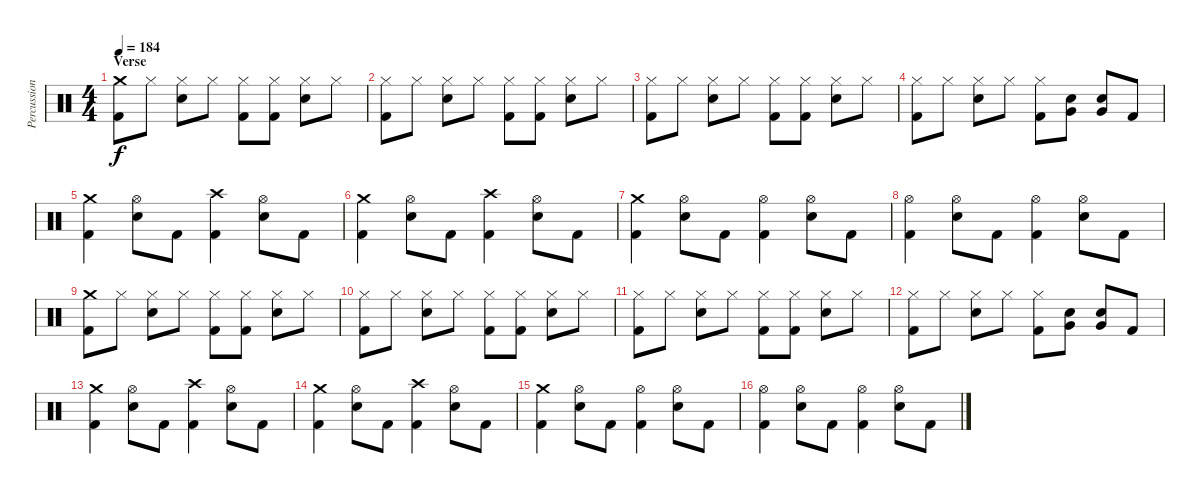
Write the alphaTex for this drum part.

\track ("Percussions" "Percussion") {instrument percussion}
\staff {score}
\articulation defaults
\ts (4 4)
\section ("" "Verse")
\tempo 184
\clef neutral
\ks c
("Crash medium (hit)" "Kick (hit) 2").8{dy f} "Hi-Hat (closed)".8 ("Hi-Hat (closed)" "Electric Snare (hit)").8 "Hi-Hat (closed)".8 ("Hi-Hat (closed)" "Kick (hit) 2").8 ("Hi-Hat (closed)" "Kick (hit) 2").8 ("Hi-Hat (closed)" "Electric Snare (hit)").8 "Hi-Hat (closed)".8 |
("Hi-Hat (closed)" "Kick (hit) 2").8 "Hi-Hat (closed)".8 ("Hi-Hat (closed)" "Electric Snare (hit)").8 "Hi-Hat (closed)".8 ("Hi-Hat (closed)" "Kick (hit) 2").8 ("Hi-Hat (closed)" "Kick (hit) 2").8 ("Hi-Hat (closed)" "Electric Snare (hit)").8 "Hi-Hat (closed)".8 |
("Hi-Hat (closed)" "Kick (hit) 2").8 "Hi-Hat (closed)".8 ("Hi-Hat (closed)" "Electric Snare (hit)").8 "Hi-Hat (closed)".8 ("Hi-Hat (closed)" "Kick (hit) 2").8 ("Hi-Hat (closed)" "Kick (hit) 2").8 ("Hi-Hat (closed)" "Electric Snare (hit)").8 "Hi-Hat (closed)".8 |
("Hi-Hat (closed)" "Kick (hit) 2").8 "Hi-Hat (closed)".8 ("Hi-Hat (closed)" "Electric Snare (hit)").8 "Hi-Hat (closed)".8 ("Hi-Hat (closed)" "Kick (hit) 2").8 ("Very Low Tom (hit)" "Electric Snare (hit)").8 ("Very Low Tom (hit)" "Electric Snare (hit)").8 "Kick (hit) 2".8 |
("Crash medium (hit)" "Kick (hit) 2").4 ("Hi-Hat (open)" "Electric Snare (hit)").8 "Kick (hit) 2".8 ("Crash high (hit)" "Kick (hit) 2").4 ("Hi-Hat (open)" "Electric Snare (hit)").8 "Kick (hit) 2".8 |
("Crash medium (hit)" "Kick (hit) 2").4 ("Hi-Hat (open)" "Electric Snare (hit)").8 "Kick (hit) 2".8 ("Crash high (hit)" "Kick (hit) 2").4 ("Hi-Hat (open)" "Electric Snare (hit)").8 "Kick (hit) 2".8 |
("Crash medium (hit)" "Kick (hit) 2").4 ("Hi-Hat (open)" "Electric Snare (hit)").8 "Kick (hit) 2".8 ("Hi-Hat (open)" "Kick (hit) 2").4 ("Hi-Hat (open)" "Electric Snare (hit)").8 "Kick (hit) 2".8 |
("Hi-Hat (open)" "Kick (hit) 2").4 ("Hi-Hat (open)" "Electric Snare (hit)").8 "Kick (hit) 2".8 ("Hi-Hat (open)" "Kick (hit) 2").4 ("Hi-Hat (open)" "Electric Snare (hit)").8 "Kick (hit) 2".8 |
("Crash medium (hit)" "Kick (hit) 2").8 "Hi-Hat (closed)".8 ("Hi-Hat (closed)" "Electric Snare (hit)").8 "Hi-Hat (closed)".8 ("Hi-Hat (closed)" "Kick (hit) 2").8 ("Hi-Hat (closed)" "Kick (hit) 2").8 ("Hi-Hat (closed)" "Electric Snare (hit)").8 "Hi-Hat (closed)".8 |
("Hi-Hat (closed)" "Kick (hit) 2").8 "Hi-Hat (closed)".8 ("Hi-Hat (closed)" "Electric Snare (hit)").8 "Hi-Hat (closed)".8 ("Hi-Hat (closed)" "Kick (hit) 2").8 ("Hi-Hat (closed)" "Kick (hit) 2").8 ("Hi-Hat (closed)" "Electric Snare (hit)").8 "Hi-Hat (closed)".8 |
("Hi-Hat (closed)" "Kick (hit) 2").8 "Hi-Hat (closed)".8 ("Hi-Hat (closed)" "Electric Snare (hit)").8 "Hi-Hat (closed)".8 ("Hi-Hat (closed)" "Kick (hit) 2").8 ("Hi-Hat (closed)" "Kick (hit) 2").8 ("Hi-Hat (closed)" "Electric Snare (hit)").8 "Hi-Hat (closed)".8 |
("Hi-Hat (closed)" "Kick (hit) 2").8 "Hi-Hat (closed)".8 ("Hi-Hat (closed)" "Electric Snare (hit)").8 "Hi-Hat (closed)".8 ("Hi-Hat (closed)" "Kick (hit) 2").8 ("Very Low Tom (hit)" "Electric Snare (hit)").8 ("Very Low Tom (hit)" "Electric Snare (hit)").8 "Kick (hit) 2".8 |
("Crash medium (hit)" "Kick (hit) 2").4 ("Hi-Hat (open)" "Electric Snare (hit)").8 "Kick (hit) 2".8 ("Crash high (hit)" "Kick (hit) 2").4 ("Hi-Hat (open)" "Electric Snare (hit)").8 "Kick (hit) 2".8 |
("Crash medium (hit)" "Kick (hit) 2").4 ("Hi-Hat (open)" "Electric Snare (hit)").8 "Kick (hit) 2".8 ("Crash high (hit)" "Kick (hit) 2").4 ("Hi-Hat (open)" "Electric Snare (hit)").8 "Kick (hit) 2".8 |
("Crash medium (hit)" "Kick (hit) 2").4 ("Hi-Hat (open)" "Electric Snare (hit)").8 "Kick (hit) 2".8 ("Hi-Hat (open)" "Kick (hit) 2").4 ("Hi-Hat (open)" "Electric Snare (hit)").8 "Kick (hit) 2".8 |
("Hi-Hat (open)" "Kick (hit) 2").4 ("Hi-Hat (open)" "Electric Snare (hit)").8 "Kick (hit) 2".8 ("Hi-Hat (open)" "Kick (hit) 2").4 ("Hi-Hat (open)" "Electric Snare (hit)").8 "Kick (hit) 2".8
